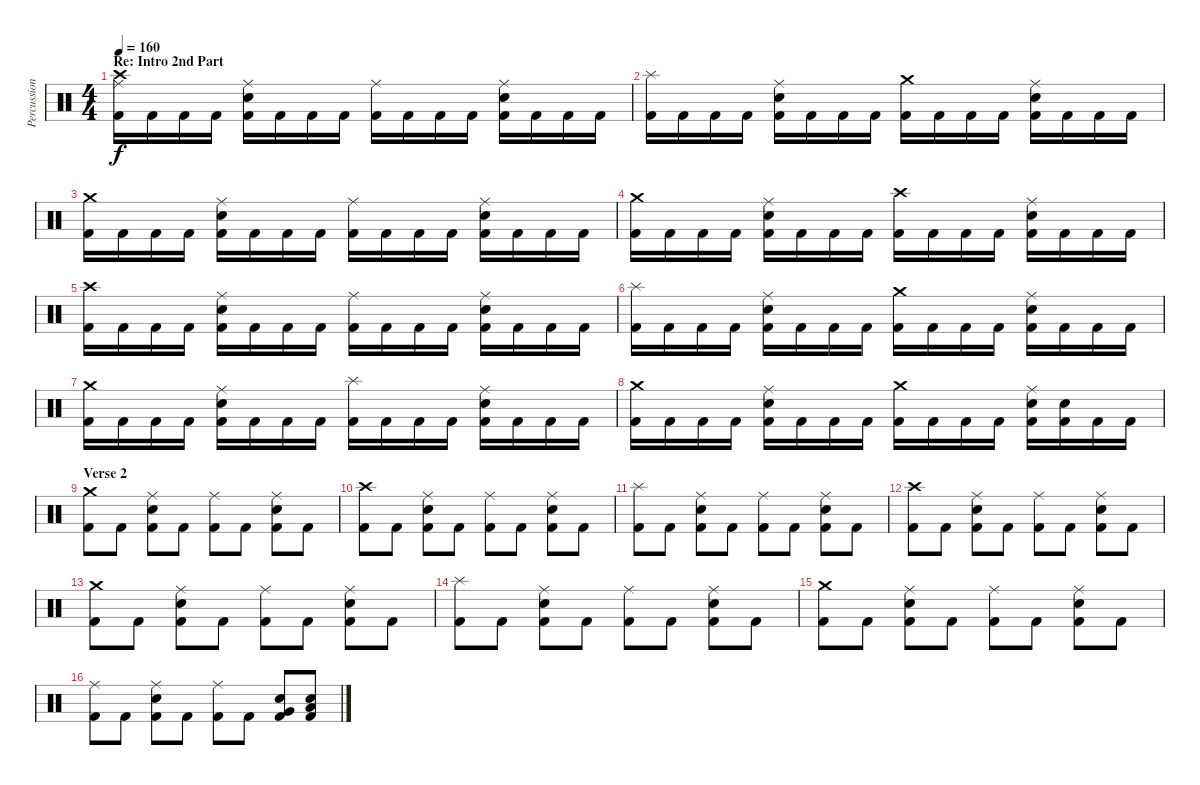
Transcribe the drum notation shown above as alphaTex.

\track ("Percussions" "Percussion") {instrument percussion}
\staff {score}
\articulation defaults
\ts (4 4)
\section ("" "Re: Intro 2nd Part")
\tempo 160
\clef neutral
\ks c
("Crash high (hit)" "Ride (middle)" "Kick (hit) 2").16{dy f} "Kick (hit) 2".16 "Kick (hit) 2".16 "Kick (hit) 2".16 ("Electric Snare (hit)" "Ride (middle)" "Kick (hit) 2").16 "Kick (hit) 2".16 "Kick (hit) 2".16 "Kick (hit) 2".16 ("Ride (middle)" "Kick (hit) 2").16 "Kick (hit) 2".16 "Kick (hit) 2".16 "Kick (hit) 2".16 ("Electric Snare (hit)" "Ride (middle)" "Kick (hit) 2").16 "Kick (hit) 2".16 "Kick (hit) 2".16 "Kick (hit) 2".16 |
("Splash (hit)" "Kick (hit) 2").16 "Kick (hit) 2".16 "Kick (hit) 2".16 "Kick (hit) 2".16 ("Electric Snare (hit)" "Ride (middle)" "Kick (hit) 2").16 "Kick (hit) 2".16 "Kick (hit) 2".16 "Kick (hit) 2".16 ("Crash medium (hit)" "Kick (hit) 2").16 "Kick (hit) 2".16 "Kick (hit) 2".16 "Kick (hit) 2".16 ("Electric Snare (hit)" "Ride (middle)" "Kick (hit) 2").16 "Kick (hit) 2".16 "Kick (hit) 2".16 "Kick (hit) 2".16 |
("Crash medium (hit)" "Kick (hit) 2").16 "Kick (hit) 2".16 "Kick (hit) 2".16 "Kick (hit) 2".16 ("Electric Snare (hit)" "Ride (middle)" "Kick (hit) 2").16 "Kick (hit) 2".16 "Kick (hit) 2".16 "Kick (hit) 2".16 ("Ride (middle)" "Kick (hit) 2").16 "Kick (hit) 2".16 "Kick (hit) 2".16 "Kick (hit) 2".16 ("Electric Snare (hit)" "Ride (middle)" "Kick (hit) 2").16 "Kick (hit) 2".16 "Kick (hit) 2".16 "Kick (hit) 2".16 |
("Crash medium (hit)" "Kick (hit) 2").16 "Kick (hit) 2".16 "Kick (hit) 2".16 "Kick (hit) 2".16 ("Electric Snare (hit)" "Ride (middle)" "Kick (hit) 2").16 "Kick (hit) 2".16 "Kick (hit) 2".16 "Kick (hit) 2".16 ("Crash high (hit)" "Kick (hit) 2").16 "Kick (hit) 2".16 "Kick (hit) 2".16 "Kick (hit) 2".16 ("Electric Snare (hit)" "Ride (middle)" "Kick (hit) 2").16 "Kick (hit) 2".16 "Kick (hit) 2".16 "Kick (hit) 2".16 |
("Crash high (hit)" "Kick (hit) 2").16 "Kick (hit) 2".16 "Kick (hit) 2".16 "Kick (hit) 2".16 ("Electric Snare (hit)" "Ride (middle)" "Kick (hit) 2").16 "Kick (hit) 2".16 "Kick (hit) 2".16 "Kick (hit) 2".16 ("Ride (middle)" "Kick (hit) 2").16 "Kick (hit) 2".16 "Kick (hit) 2".16 "Kick (hit) 2".16 ("Electric Snare (hit)" "Ride (middle)" "Kick (hit) 2").16 "Kick (hit) 2".16 "Kick (hit) 2".16 "Kick (hit) 2".16 |
("Splash (hit)" "Kick (hit) 2").16 "Kick (hit) 2".16 "Kick (hit) 2".16 "Kick (hit) 2".16 ("Electric Snare (hit)" "Ride (middle)" "Kick (hit) 2").16 "Kick (hit) 2".16 "Kick (hit) 2".16 "Kick (hit) 2".16 ("Crash medium (hit)" "Kick (hit) 2").16 "Kick (hit) 2".16 "Kick (hit) 2".16 "Kick (hit) 2".16 ("Electric Snare (hit)" "Ride (middle)" "Kick (hit) 2").16 "Kick (hit) 2".16 "Kick (hit) 2".16 "Kick (hit) 2".16 |
("Crash medium (hit)" "Kick (hit) 2").16 "Kick (hit) 2".16 "Kick (hit) 2".16 "Kick (hit) 2".16 ("Electric Snare (hit)" "Ride (middle)" "Kick (hit) 2").16 "Kick (hit) 2".16 "Kick (hit) 2".16 "Kick (hit) 2".16 ("Splash (hit)" "Kick (hit) 2").16 "Kick (hit) 2".16 "Kick (hit) 2".16 "Kick (hit) 2".16 ("Electric Snare (hit)" "Ride (middle)" "Kick (hit) 2").16 "Kick (hit) 2".16 "Kick (hit) 2".16 "Kick (hit) 2".16 |
("Crash medium (hit)" "Kick (hit) 2").16 "Kick (hit) 2".16 "Kick (hit) 2".16 "Kick (hit) 2".16 ("Electric Snare (hit)" "Ride (middle)" "Kick (hit) 2").16 "Kick (hit) 2".16 "Kick (hit) 2".16 "Kick (hit) 2".16 ("Crash medium (hit)" "Kick (hit) 2").16 "Kick (hit) 2".16 "Kick (hit) 2".16 "Kick (hit) 2".16 ("Electric Snare (hit)" "Ride (middle)" "Kick (hit) 2").16 ("Electric Snare (hit)" "Kick (hit) 2").16 "Kick (hit) 2".16 "Kick (hit) 2".16 |
\section ("" "Verse 2")
("Crash medium (hit)" "Kick (hit) 2").8 "Kick (hit) 2".8 ("Electric Snare (hit)" "Ride (middle)" "Kick (hit) 2").8 "Kick (hit) 2".8 ("Ride (middle)" "Kick (hit) 2").8 "Kick (hit) 2".8 ("Electric Snare (hit)" "Ride (middle)" "Kick (hit) 2").8 "Kick (hit) 2".8 |
("Crash high (hit)" "Kick (hit) 2").8 "Kick (hit) 2".8 ("Electric Snare (hit)" "Ride (middle)" "Kick (hit) 2").8 "Kick (hit) 2".8 ("Ride (middle)" "Kick (hit) 2").8 "Kick (hit) 2".8 ("Electric Snare (hit)" "Ride (middle)" "Kick (hit) 2").8 "Kick (hit) 2".8 |
("Splash (hit)" "Kick (hit) 2").8 "Kick (hit) 2".8 ("Electric Snare (hit)" "Ride (middle)" "Kick (hit) 2").8 "Kick (hit) 2".8 ("Ride (middle)" "Kick (hit) 2").8 "Kick (hit) 2".8 ("Electric Snare (hit)" "Ride (middle)" "Kick (hit) 2").8 "Kick (hit) 2".8 |
("Crash high (hit)" "Kick (hit) 2").8 "Kick (hit) 2".8 ("Electric Snare (hit)" "Ride (middle)" "Kick (hit) 2").8 "Kick (hit) 2".8 ("Ride (middle)" "Kick (hit) 2").8 "Kick (hit) 2".8 ("Electric Snare (hit)" "Ride (middle)" "Kick (hit) 2").8 "Kick (hit) 2".8 |
("Crash medium (hit)" "Kick (hit) 2").8 "Kick (hit) 2".8 ("Electric Snare (hit)" "Ride (middle)" "Kick (hit) 2").8 "Kick (hit) 2".8 ("Ride (middle)" "Kick (hit) 2").8 "Kick (hit) 2".8 ("Electric Snare (hit)" "Ride (middle)" "Kick (hit) 2").8 "Kick (hit) 2".8 |
("Splash (hit)" "Kick (hit) 2").8 "Kick (hit) 2".8 ("Electric Snare (hit)" "Ride (middle)" "Kick (hit) 2").8 "Kick (hit) 2".8 ("Ride (middle)" "Kick (hit) 2").8 "Kick (hit) 2".8 ("Electric Snare (hit)" "Ride (middle)" "Kick (hit) 2").8 "Kick (hit) 2".8 |
("Crash medium (hit)" "Kick (hit) 2").8 "Kick (hit) 2".8 ("Electric Snare (hit)" "Ride (middle)" "Kick (hit) 2").8 "Kick (hit) 2".8 ("Ride (middle)" "Kick (hit) 2").8 "Kick (hit) 2".8 ("Electric Snare (hit)" "Ride (middle)" "Kick (hit) 2").8 "Kick (hit) 2".8 |
("Ride (middle)" "Kick (hit) 2").8 "Kick (hit) 2".8 ("Electric Snare (hit)" "Ride (middle)" "Kick (hit) 2").8 "Kick (hit) 2".8 ("Ride (middle)" "Kick (hit) 2").8 "Kick (hit) 2".8 ("Electric Snare (hit)" "Very Low Tom (hit)" "Kick (hit) 2").8 ("Electric Snare (hit)" "Low Floor Tom (hit)" "Kick (hit) 2").8
